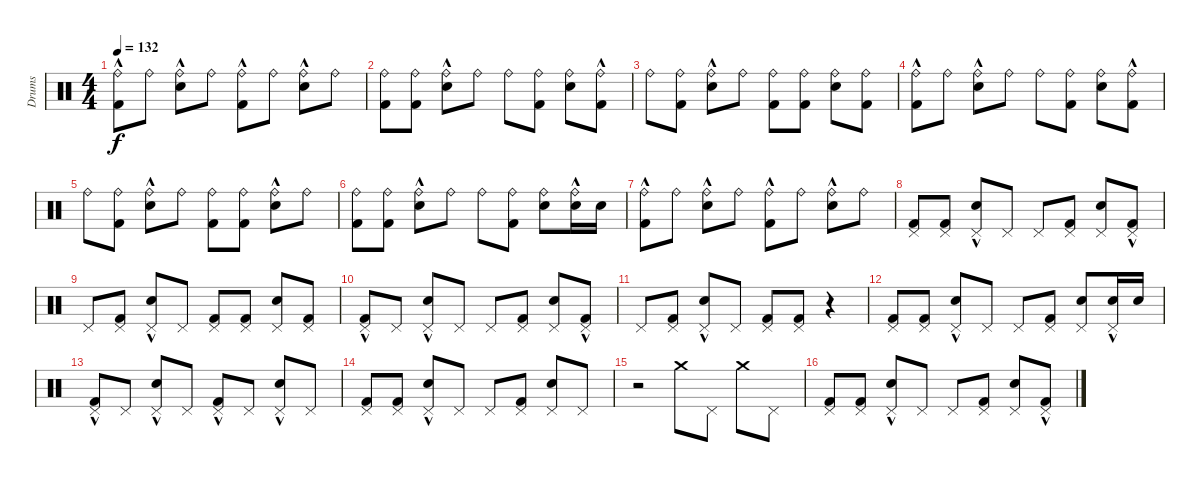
\track ("Drums" "Drums") {instrument percussion}
\staff {score}
\articulation defaults
\ts (4 4)
\tempo 132
\clef neutral
\ks c
("Ride (bell)"{hac} "Kick (hit) 2").8{dy f} "Ride (bell)".8 ("Ride (bell)"{hac} "Snare (hit) 2").8 "Ride (bell)".8 ("Ride (bell)"{hac} "Kick (hit) 2").8 "Ride (bell)".8 ("Ride (bell)"{hac} "Snare (hit) 2").8 "Ride (bell)".8 |
("Ride (bell)" "Kick (hit) 2").8 ("Ride (bell)" "Kick (hit) 2").8 ("Ride (bell)"{hac} "Snare (hit) 2").8 "Ride (bell)".8 "Ride (bell)".8 ("Ride (bell)" "Kick (hit) 2").8 ("Ride (bell)" "Snare (hit) 2").8 ("Ride (bell)"{hac} "Kick (hit) 2"{hac}).8 |
"Ride (bell)".8 ("Ride (bell)" "Kick (hit) 2").8 ("Ride (bell)"{hac} "Snare (hit) 2").8 "Ride (bell)".8 ("Ride (bell)" "Kick (hit) 2").8 ("Ride (bell)" "Kick (hit) 2").8 ("Ride (bell)" "Snare (hit) 2").8 ("Ride (bell)" "Kick (hit) 2").8 |
("Ride (bell)"{hac} "Kick (hit) 2").8 "Ride (bell)".8 ("Ride (bell)"{hac} "Snare (hit) 2").8 "Ride (bell)".8 "Ride (bell)".8 ("Ride (bell)" "Kick (hit) 2").8 ("Ride (bell)" "Snare (hit) 2").8 ("Ride (bell)"{hac} "Kick (hit) 2"{hac}).8 |
"Ride (bell)".8 ("Ride (bell)" "Kick (hit) 2").8 ("Ride (bell)"{hac} "Snare (hit) 2").8 "Ride (bell)".8 ("Ride (bell)" "Kick (hit) 2").8 ("Ride (bell)" "Kick (hit) 2").8 ("Ride (bell)"{hac} "Snare (hit) 2").8 "Ride (bell)".8 |
("Ride (bell)" "Kick (hit) 2").8 ("Ride (bell)" "Kick (hit) 2").8 ("Ride (bell)"{hac} "Snare (hit) 2").8 "Ride (bell)".8 "Ride (bell)".8 ("Ride (bell)" "Kick (hit) 2").8 ("Ride (bell)" "Snare (hit) 2").8 ("Ride (bell)"{hac} "Snare (hit) 2").16 "Snare (hit) 2".16 |
("Ride (bell)"{hac} "Kick (hit) 2").8 "Ride (bell)".8 ("Ride (bell)"{hac} "Snare (hit) 2").8 "Ride (bell)".8 ("Ride (bell)"{hac} "Kick (hit) 2").8 "Ride (bell)".8 ("Ride (bell)"{hac} "Snare (hit) 2").8 "Ride (bell)".8 |
("Pedal Hi-Hat (hit)" "Kick (hit) 2").8 ("Pedal Hi-Hat (hit)" "Kick (hit) 2").8 ("Pedal Hi-Hat (hit)"{hac} "Snare (hit) 2").8 "Pedal Hi-Hat (hit)".8 "Pedal Hi-Hat (hit)".8 ("Pedal Hi-Hat (hit)" "Kick (hit) 2").8 ("Pedal Hi-Hat (hit)" "Snare (hit) 2").8 ("Pedal Hi-Hat (hit)"{hac} "Kick (hit) 2"{hac}).8 |
"Pedal Hi-Hat (hit)".8 ("Pedal Hi-Hat (hit)" "Kick (hit) 2").8 ("Pedal Hi-Hat (hit)"{hac} "Snare (hit) 2").8 "Pedal Hi-Hat (hit)".8 ("Pedal Hi-Hat (hit)" "Kick (hit) 2").8 ("Pedal Hi-Hat (hit)" "Kick (hit) 2").8 ("Pedal Hi-Hat (hit)" "Snare (hit) 2").8 ("Pedal Hi-Hat (hit)" "Kick (hit) 2").8 |
("Pedal Hi-Hat (hit)"{hac} "Kick (hit) 2").8 "Pedal Hi-Hat (hit)".8 ("Pedal Hi-Hat (hit)"{hac} "Snare (hit) 2").8 "Pedal Hi-Hat (hit)".8 "Pedal Hi-Hat (hit)".8 ("Pedal Hi-Hat (hit)" "Kick (hit) 2").8 ("Pedal Hi-Hat (hit)" "Snare (hit) 2").8 ("Pedal Hi-Hat (hit)"{hac} "Kick (hit) 2"{hac}).8 |
"Pedal Hi-Hat (hit)".8 ("Pedal Hi-Hat (hit)" "Kick (hit) 2").8 ("Pedal Hi-Hat (hit)"{hac} "Snare (hit) 2").8 "Pedal Hi-Hat (hit)".8 ("Pedal Hi-Hat (hit)" "Kick (hit) 2").8 ("Pedal Hi-Hat (hit)" "Kick (hit) 2").8 r.4 |
("Pedal Hi-Hat (hit)" "Kick (hit) 2").8 ("Pedal Hi-Hat (hit)" "Kick (hit) 2").8 ("Pedal Hi-Hat (hit)"{hac} "Snare (hit) 2").8 "Pedal Hi-Hat (hit)".8 "Pedal Hi-Hat (hit)".8 ("Pedal Hi-Hat (hit)" "Kick (hit) 2").8 ("Pedal Hi-Hat (hit)" "Snare (hit) 2").8 ("Pedal Hi-Hat (hit)"{hac} "Snare (hit) 2").16 "Snare (hit) 2".16 |
("Pedal Hi-Hat (hit)"{hac} "Kick (hit) 2").8 "Pedal Hi-Hat (hit)".8 ("Pedal Hi-Hat (hit)"{hac} "Snare (hit) 2").8 "Pedal Hi-Hat (hit)".8 ("Pedal Hi-Hat (hit)"{hac} "Kick (hit) 2").8 "Pedal Hi-Hat (hit)".8 ("Pedal Hi-Hat (hit)"{hac} "Snare (hit) 2").8 "Pedal Hi-Hat (hit)".8 |
("Pedal Hi-Hat (hit)" "Kick (hit) 2").8 ("Pedal Hi-Hat (hit)" "Kick (hit) 2").8 ("Pedal Hi-Hat (hit)"{hac} "Snare (hit) 2").8 "Pedal Hi-Hat (hit)".8 "Pedal Hi-Hat (hit)".8 ("Pedal Hi-Hat (hit)" "Kick (hit) 2").8 ("Pedal Hi-Hat (hit)" "Snare (hit) 2").8 "Pedal Hi-Hat (hit)".8 |
r.2 "Crash medium (hit)".8 "Pedal Hi-Hat (hit)".8 "Crash medium (hit)".8 "Pedal Hi-Hat (hit)".8 |
("Pedal Hi-Hat (hit)" "Kick (hit) 2").8 ("Pedal Hi-Hat (hit)" "Kick (hit) 2").8 ("Pedal Hi-Hat (hit)"{hac} "Snare (hit) 2").8 "Pedal Hi-Hat (hit)".8 "Pedal Hi-Hat (hit)".8 ("Pedal Hi-Hat (hit)" "Kick (hit) 2").8 ("Pedal Hi-Hat (hit)" "Snare (hit) 2").8 ("Pedal Hi-Hat (hit)"{hac} "Kick (hit) 2"{hac}).8
